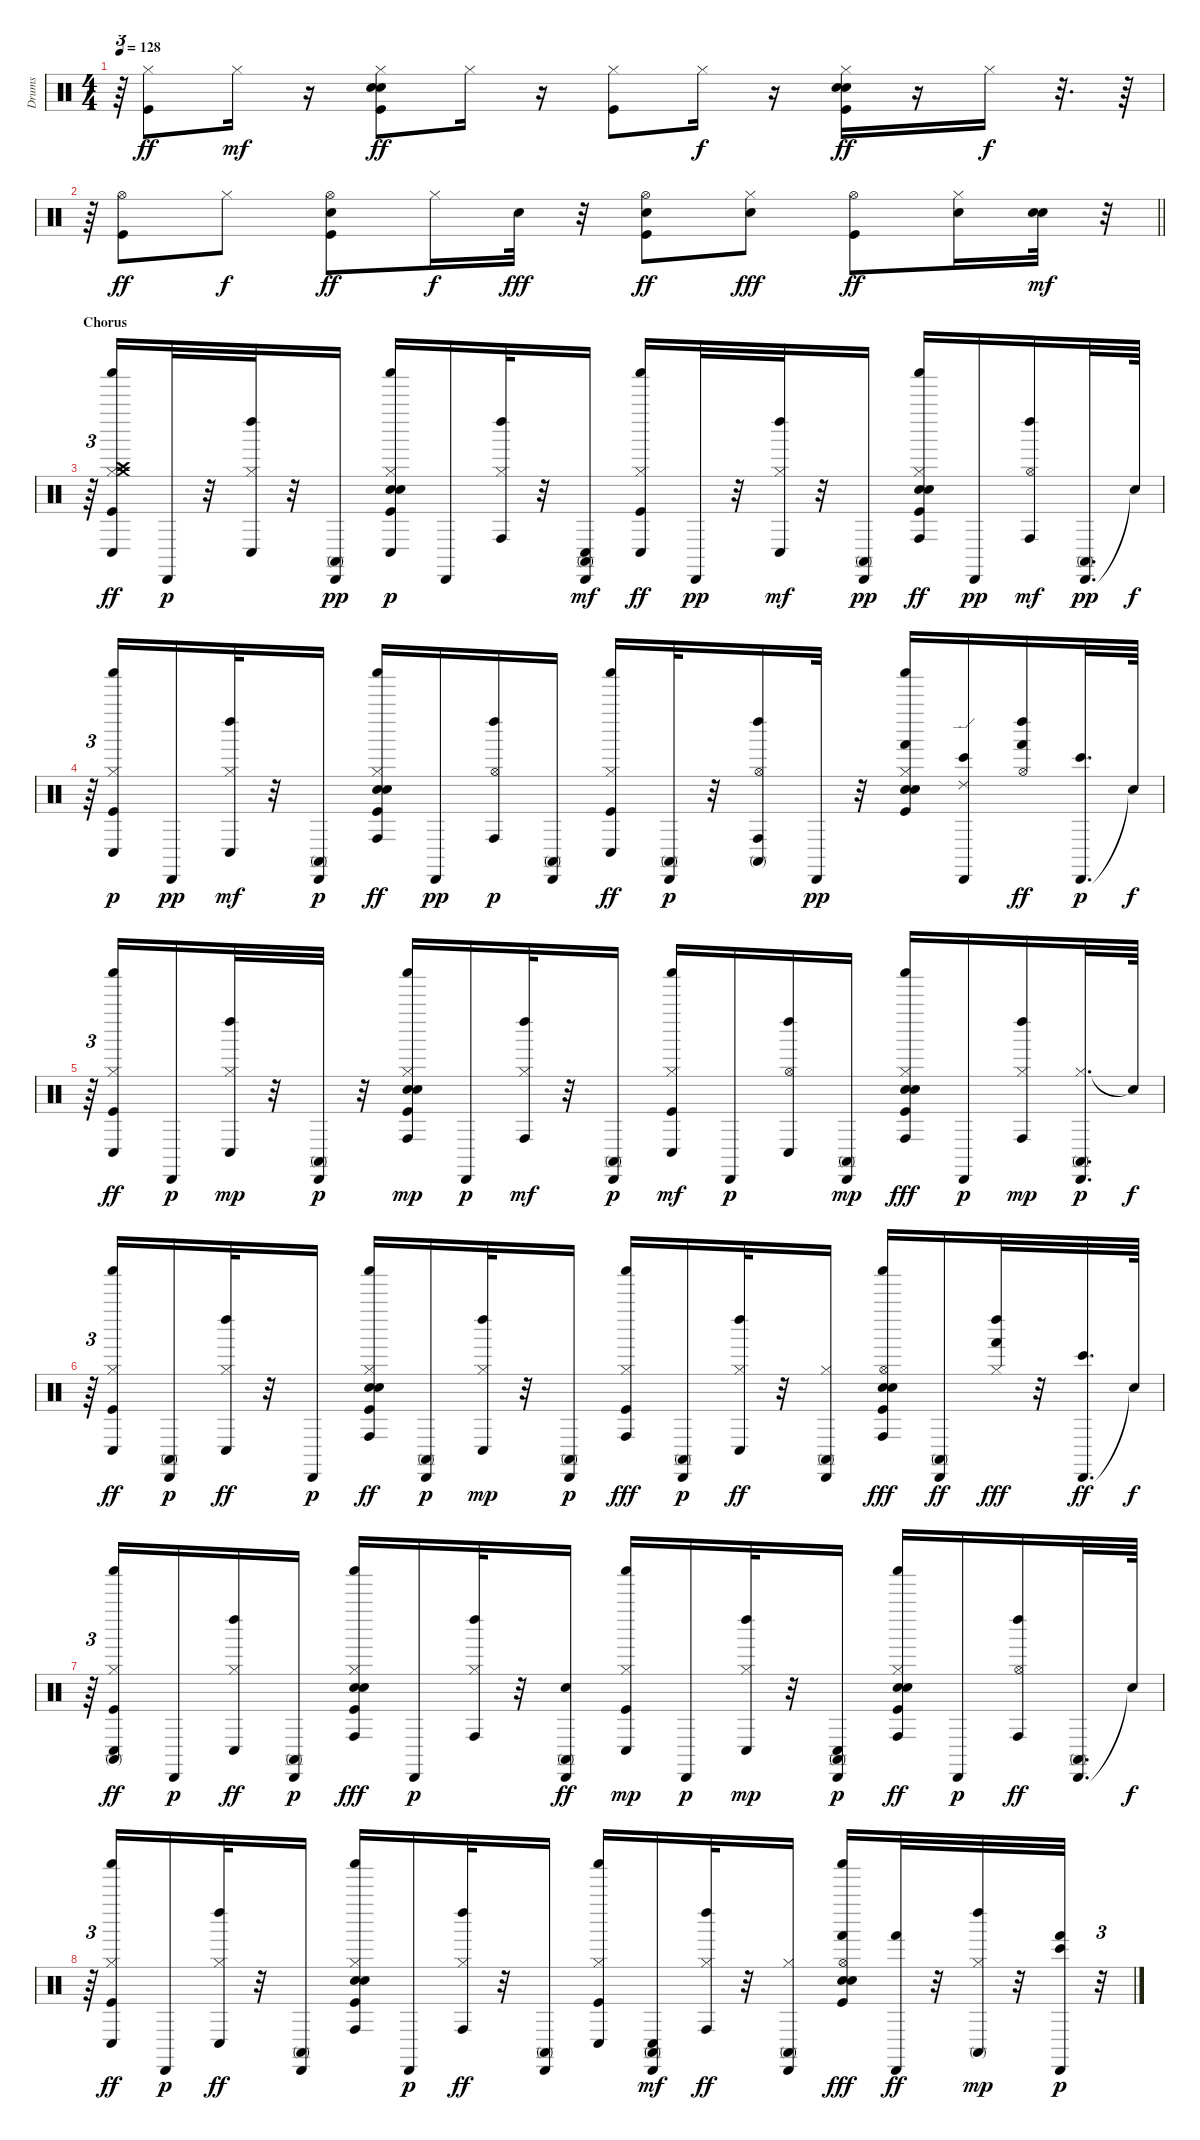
\track ("Drums" "Drums") {instrument percussion}
\staff {score}
\articulation defaults
\ts (4 4)
\tempo 128
\clef neutral
\ks c
r.64{tu (3 2) dy f} ("Kick (hit)" "Hi-Hat (closed)").8{dy ff} "Hi-Hat (closed)".16{dy mf} r.16 ("Kick (hit)" "Electric Snare (hit)" "Hand Clap (hit)" "Hi-Hat (closed)").8{dy ff} "Hi-Hat (closed)".16 r.16 ("Kick (hit)" "Hi-Hat (closed)").8 "Hi-Hat (closed)".16{dy f} r.16 ("Kick (hit)" "Electric Snare (hit)" "Hand Clap (hit)" "Hi-Hat (closed)").16{dy ff} r.16 "Hi-Hat (closed)".16{dy f} r.32{d} r.64 |
\barLineRight lightlight
r.64{tu (3 2)} ("Kick (hit)" "Hi-Hat (open)").8{dy ff} "Hi-Hat (closed)".8{dy f} ("Kick (hit)" "Electric Snare (hit)" "Hi-Hat (open)").8{dy ff} "Hi-Hat (closed)".16{dy f} "Electric Snare (hit)".32{dy fff} r.32 ("Kick (hit)" "Electric Snare (hit)" "Hi-Hat (open)").8{dy ff} ("Electric Snare (hit)" "Hi-Hat (closed)").8{dy fff} ("Kick (hit)" "Hi-Hat (open)").8{dy ff} ("Electric Snare (hit)" "Hi-Hat (closed)").16 ("Electric Snare (hit)" "Snare (hit) 2").32{dy mf} r.32{tu (3 2)} |
\section ("" "Chorus")
r.64{tu (3 2)} ("Kick (hit)" "Hi-Hat (closed)" "Crash medium (hit)" "Crash high (hit)" "Shaker (hit)" "Conga low (hit)").16{dy ff} "Cabasa (hit)".32{dy p} r.32 ("Hi-Hat (closed)" "Left Maraca (hit)" "Conga low (hit)").32 r.32 ("Cabasa (hit)" "Conga high (mute)").16{dy pp} ("Kick (hit)" "Snare (hit) 2" "Hand Clap (hit)" "Hi-Hat (closed)" "Shaker (hit)" "Conga low (hit)").16{dy p} "Cabasa (hit)".16 ("Hi-Hat (closed)" "Left Maraca (hit)" "Conga high (hit)").32 r.32 ("Cabasa (hit)" "Conga high (mute)" "Conga low (hit)").16{dy mf} ("Kick (hit)" "Hi-Hat (closed)" "Shaker (hit)" "Conga low (hit)").16{dy ff} "Cabasa (hit)".32{dy pp} r.32 ("Hi-Hat (closed)" "Left Maraca (hit)" "Conga low (hit)").32{dy mf} r.32 ("Cabasa (hit)" "Conga high (mute)").16{dy pp} ("Kick (hit)" "Snare (hit) 2" "Hand Clap (hit)" "Hi-Hat (closed)" "Shaker (hit)" "Conga high (hit)").16{dy ff} "Cabasa (hit)".16{dy pp} ("Hi-Hat (open)" "Left Maraca (hit)" "Conga high (hit)").16{dy mf} ("Cabasa (hit)" "Conga high (mute)").32{d dy pp} "Snare (hit)"{t}.64{dy f} |
r.64{tu (3 2)} ("Kick (hit)" "Hi-Hat (closed)" "Shaker (hit)" "Conga low (hit)").16{dy p} "Cabasa (hit)".16{dy pp} ("Hi-Hat (closed)" "Left Maraca (hit)" "Conga low (hit)").32{dy mf} r.32 ("Cabasa (hit)" "Conga high (mute)").16{dy p} ("Kick (hit)" "Snare (hit) 2" "Hand Clap (hit)" "Hi-Hat (closed)" "Shaker (hit)" "Conga high (hit)").16{dy ff} "Cabasa (hit)".16{dy pp} ("Hi-Hat (open)" "Left Maraca (hit)" "Conga high (hit)").16{dy p} ("Cabasa (hit)" "Conga high (mute)").16 ("Kick (hit)" "Hi-Hat (closed)" "Shaker (hit)" "Conga low (hit)").16{dy ff} ("Cabasa (hit)" "Conga high (mute)").32{dy p} r.32 ("Hi-Hat (open)" "Left Maraca (hit)" "Conga high (hit)" "Conga high (mute)").16 "Cabasa (hit)".32{dy pp} r.32 ("Kick (hit)" "Snare (hit) 2" "Hand Clap (hit)" "Hi-Hat (closed)" "Shaker (hit)" "Hand (hit)").16 ("Cabasa (hit)" "Bongo High (hit)" "Ride (edge) 2").16 ("Hi-Hat (open)" "Left Maraca (hit)" "Hand (hit)").16{dy ff} ("Cabasa (hit)" "Bongo High (hit)").32{d dy p} "Snare (hit)"{t}.64{dy f} |
r.64{tu (3 2)} ("Kick (hit)" "Hi-Hat (closed)" "Shaker (hit)" "Conga low (hit)").16{dy ff} "Cabasa (hit)".16{dy p} ("Hi-Hat (closed)" "Left Maraca (hit)" "Conga low (hit)").32{dy mp} r.32 ("Cabasa (hit)" "Conga high (mute)").32{dy p} r.32 ("Kick (hit)" "Snare (hit) 2" "Hand Clap (hit)" "Hi-Hat (closed)" "Shaker (hit)" "Conga high (hit)").16{dy mp} "Cabasa (hit)".16{dy p} ("Hi-Hat (closed)" "Left Maraca (hit)" "Conga high (hit)").32{dy mf} r.32 ("Cabasa (hit)" "Conga high (mute)").16{dy p} ("Kick (hit)" "Hi-Hat (closed)" "Shaker (hit)" "Conga low (hit)").16{dy mf} "Cabasa (hit)".16{dy p} ("Hi-Hat (open)" "Left Maraca (hit)" "Conga low (hit)").16 ("Cabasa (hit)" "Conga high (mute)").16{dy mp} ("Kick (hit)" "Snare (hit) 2" "Hand Clap (hit)" "Hi-Hat (closed)" "Shaker (hit)" "Conga high (hit)").16{dy fff} "Cabasa (hit)".16{dy p} ("Hi-Hat (closed)" "Left Maraca (hit)" "Conga high (hit)").16{dy mp} ("Hi-Hat (closed)" "Cabasa (hit)" "Conga high (mute)").32{d dy p} "Snare (hit)"{t}.64{dy f} |
r.64{tu (3 2)} ("Kick (hit)" "Hi-Hat (closed)" "Shaker (hit)" "Conga low (hit)").16{dy ff} ("Cabasa (hit)" "Conga high (mute)").16{dy p} ("Hi-Hat (closed)" "Left Maraca (hit)" "Conga low (hit)").32{dy ff} r.32 "Cabasa (hit)".16{dy p} ("Kick (hit)" "Snare (hit) 2" "Hand Clap (hit)" "Hi-Hat (closed)" "Shaker (hit)" "Conga high (hit)").16{dy ff} ("Cabasa (hit)" "Conga high (mute)").16{dy p} ("Hi-Hat (closed)" "Left Maraca (hit)" "Conga low (hit)").32{dy mp} r.32 ("Cabasa (hit)" "Conga high (mute)").16{dy p} ("Kick (hit)" "Hi-Hat (closed)" "Shaker (hit)" "Conga high (hit)").16{dy fff} ("Cabasa (hit)" "Conga high (mute)").16{dy p} ("Hi-Hat (closed)" "Left Maraca (hit)" "Conga low (hit)").32{dy ff} r.32 ("Hi-Hat (closed)" "Cabasa (hit)" "Conga high (mute)").16 ("Kick (hit)" "Snare (hit) 2" "Hand Clap (hit)" "Hi-Hat (open)" "Shaker (hit)" "Conga high (hit)").16{dy fff} ("Cabasa (hit)" "Conga high (mute)").16{dy ff} ("Hi-Hat (closed)" "Left Maraca (hit)" "Hand (hit)").32{dy fff} r.32 ("Cabasa (hit)" "Bongo High (hit)").32{d dy ff} "Snare (hit)"{t}.64{dy f} |
r.64{tu (3 2)} ("Kick (hit)" "Hi-Hat (closed)" "Shaker (hit)" "Conga low (hit)" "Conga high (mute)").16{dy ff} "Cabasa (hit)".16{dy p} ("Hi-Hat (closed)" "Left Maraca (hit)" "Conga low (hit)").16{dy ff} ("Cabasa (hit)" "Conga high (mute)").16{dy p} ("Kick (hit)" "Snare (hit) 2" "Hand Clap (hit)" "Hi-Hat (closed)" "Shaker (hit)" "Conga high (hit)").16{dy fff} "Cabasa (hit)".16{dy p} ("Hi-Hat (closed)" "Left Maraca (hit)" "Conga high (hit)").32 r.32 ("Snare (hit) 2" "Cabasa (hit)" "Conga high (mute)").16{dy ff} ("Kick (hit)" "Hi-Hat (closed)" "Shaker (hit)" "Conga low (hit)").16{dy mp} "Cabasa (hit)".16{dy p} ("Hi-Hat (closed)" "Left Maraca (hit)" "Conga low (hit)").32{dy mp} r.32 ("Cabasa (hit)" "Conga high (mute)" "Conga low (hit)").16{dy p} ("Kick (hit)" "Snare (hit) 2" "Hand Clap (hit)" "Hi-Hat (closed)" "Shaker (hit)" "Conga high (hit)").16{dy ff} "Cabasa (hit)".16{dy p} ("Hi-Hat (open)" "Left Maraca (hit)" "Conga high (hit)").16{dy ff} ("Cabasa (hit)" "Conga high (mute)").32{d} "Snare (hit)"{t}.64{dy f} |
r.64{tu (3 2)} ("Kick (hit)" "Hi-Hat (closed)" "Shaker (hit)" "Conga low (hit)").16{dy ff} "Cabasa (hit)".16{dy p} ("Hi-Hat (closed)" "Left Maraca (hit)" "Conga low (hit)").32{dy ff} r.32 ("Cabasa (hit)" "Conga high (mute)").16 ("Kick (hit)" "Snare (hit) 2" "Hand Clap (hit)" "Hi-Hat (closed)" "Shaker (hit)" "Conga high (hit)").16 "Cabasa (hit)".16{dy p} ("Hi-Hat (closed)" "Left Maraca (hit)" "Conga high (hit)").32{dy ff} r.32 ("Cabasa (hit)" "Conga high (mute)").16 ("Kick (hit)" "Hi-Hat (closed)" "Shaker (hit)" "Conga low (hit)").16 ("Cabasa (hit)" "Conga high (mute)" "Conga low (hit)").16{dy mf} ("Hi-Hat (closed)" "Left Maraca (hit)" "Conga high (hit)").32{dy ff} r.32 ("Hi-Hat (closed)" "Cabasa (hit)" "Conga high (mute)").16 ("Kick (hit)" "Snare (hit) 2" "Hand Clap (hit)" "Hi-Hat (open)" "Shaker (hit)" "Hand (hit)").16{dy fff} ("Cabasa (hit)" "Hand (hit)").32{dy ff} r.32 ("Hi-Hat (closed)" "Left Maraca (hit)" "Conga high (mute)").32{dy mp} r.32 ("Cabasa (hit)" "Hand (hit)" "Bongo High (hit)").32{dy p} r.32{tu (3 2)}
